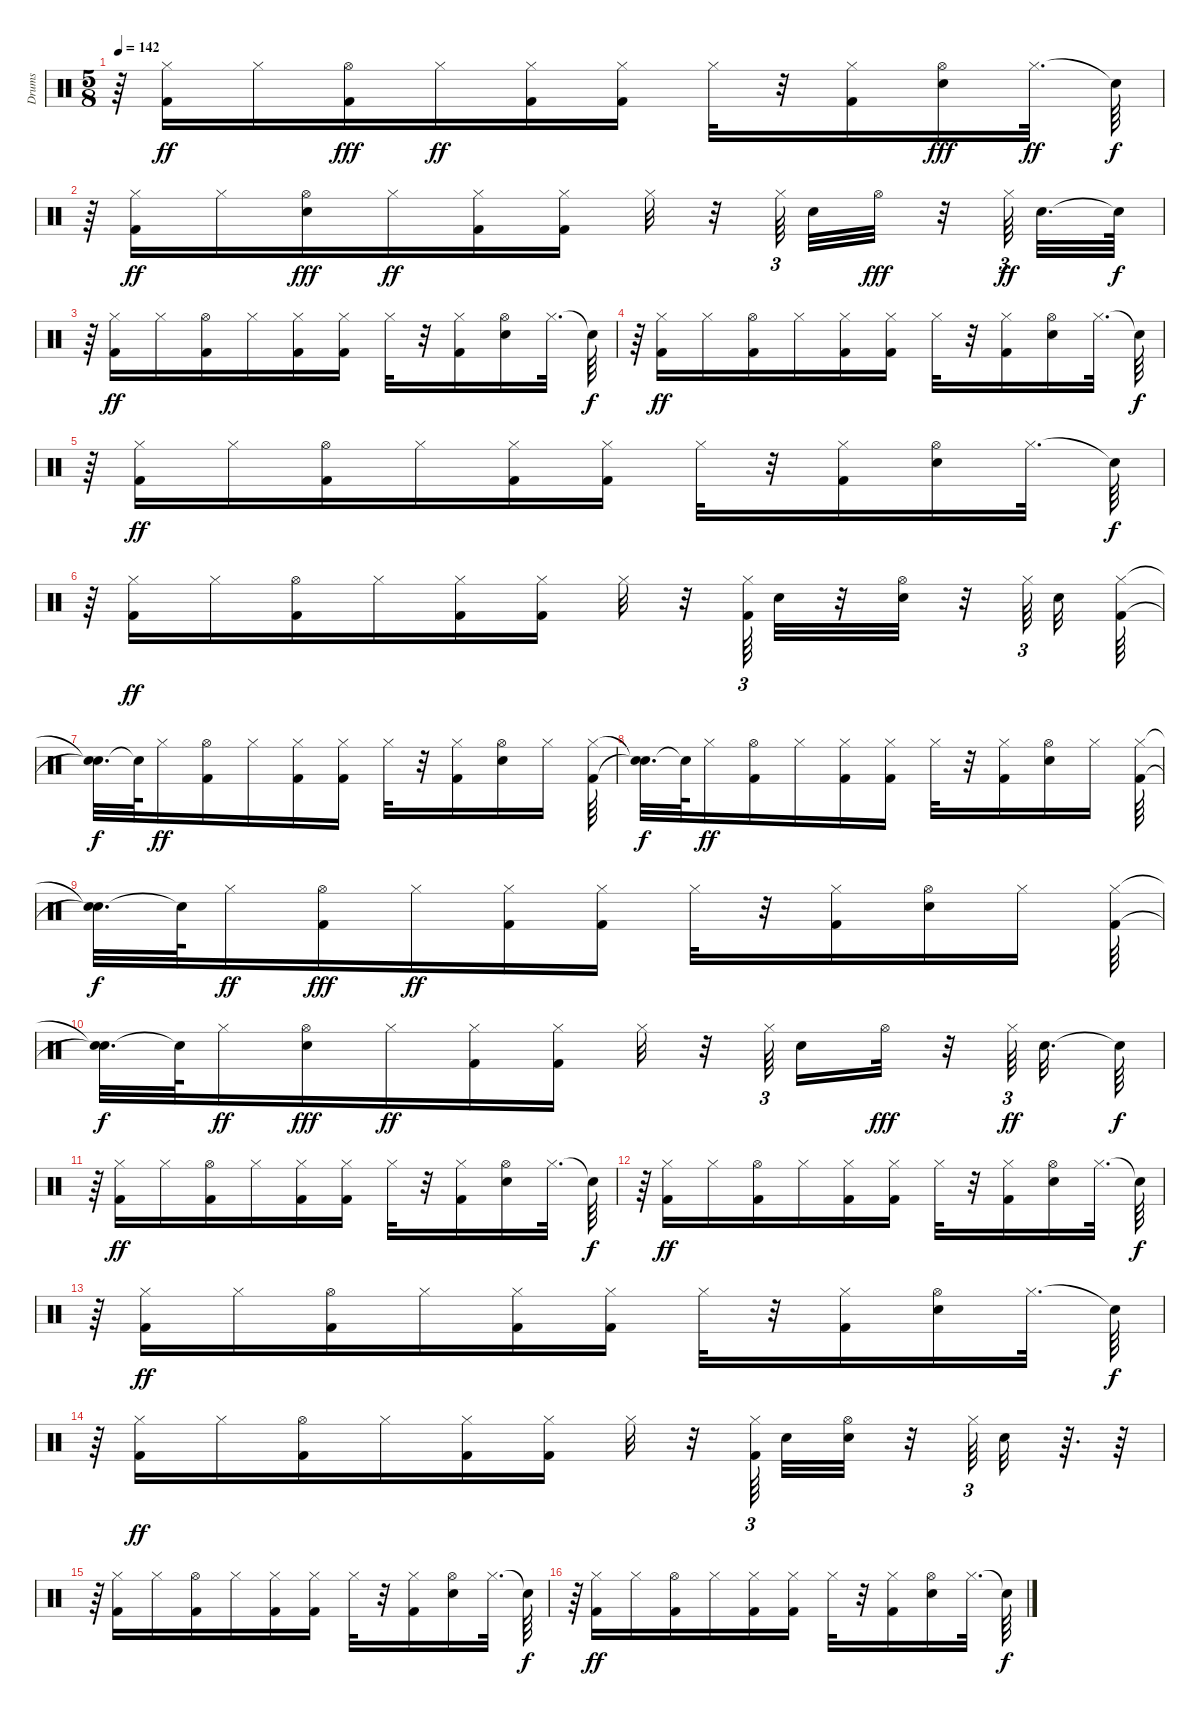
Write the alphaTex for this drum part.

\track ("Drums                               " "Drums     ") {instrument percussion}
\staff {score}
\articulation defaults
\ts (5 8)
\tempo 142
\clef neutral
\ks c
r.64{dy f} ("Kick (hit) 2" "Hi-Hat (closed)").16{dy ff} "Hi-Hat (closed)".16 ("Kick (hit) 2" "Hi-Hat (open)").16{dy fff} "Hi-Hat (closed)".16{dy ff} ("Hi-Hat (closed)" "Kick (hit) 2").16 ("Kick (hit) 2" "Hi-Hat (closed)").16 "Hi-Hat (closed)".32 r.32 ("Kick (hit) 2" "Hi-Hat (closed)").16 ("Snare (hit) 2" "Hi-Hat (open)").16{dy fff} "Hi-Hat (closed)".32{d dy ff} "Snare (hit)"{t}.64{dy f} |
r.64 ("Kick (hit) 2" "Hi-Hat (closed)").16{dy ff} "Hi-Hat (closed)".16 ("Snare (hit) 2" "Hi-Hat (open)").16{dy fff} "Hi-Hat (closed)".16{dy ff} ("Hi-Hat (closed)" "Kick (hit) 2").16 ("Kick (hit) 2" "Hi-Hat (closed)").16 "Hi-Hat (closed)".32 r.32 "Hi-Hat (closed)".64{tu (3 2)} "Snare (hit) 2".32 "Hi-Hat (open)".32{dy fff} r.32 "Hi-Hat (closed)".64{tu (3 2) dy ff} "Snare (hit) 2".32{d} "Snare (hit)"{t}.64{dy f} |
r.64 ("Kick (hit) 2" "Hi-Hat (closed)").16{dy ff} "Hi-Hat (closed)".16 ("Kick (hit) 2" "Hi-Hat (open)").16 "Hi-Hat (closed)".16 ("Hi-Hat (closed)" "Kick (hit) 2").16 ("Kick (hit) 2" "Hi-Hat (closed)").16 "Hi-Hat (closed)".32 r.32 ("Kick (hit) 2" "Hi-Hat (closed)").16 ("Snare (hit) 2" "Hi-Hat (open)").16 "Hi-Hat (closed)".32{d} "Snare (hit)"{t}.64{dy f} |
r.64 ("Hi-Hat (closed)" "Kick (hit) 2").16{dy ff} "Hi-Hat (closed)".16 ("Hi-Hat (open)" "Kick (hit) 2").16 "Hi-Hat (closed)".16 ("Hi-Hat (closed)" "Kick (hit) 2").16 ("Kick (hit) 2" "Hi-Hat (closed)").16 "Hi-Hat (closed)".32 r.32 ("Kick (hit) 2" "Hi-Hat (closed)").16 ("Hi-Hat (open)" "Snare (hit) 2").16 "Hi-Hat (closed)".32{d} "Snare (hit)"{t}.64{dy f} |
r.64 ("Hi-Hat (closed)" "Kick (hit) 2").16{dy ff} "Hi-Hat (closed)".16 ("Hi-Hat (open)" "Kick (hit) 2").16 "Hi-Hat (closed)".16 ("Kick (hit) 2" "Hi-Hat (closed)").16 ("Kick (hit) 2" "Hi-Hat (closed)").16 "Hi-Hat (closed)".32 r.32 ("Kick (hit) 2" "Hi-Hat (closed)").16 ("Hi-Hat (open)" "Snare (hit) 2").16 "Hi-Hat (closed)".32{d} "Snare (hit)"{t}.64{dy f} |
r.64 ("Kick (hit) 2" "Hi-Hat (closed)").16{dy ff} "Hi-Hat (closed)".16 ("Hi-Hat (open)" "Kick (hit) 2").16 "Hi-Hat (closed)".16 ("Kick (hit) 2" "Hi-Hat (closed)").16 ("Kick (hit) 2" "Hi-Hat (closed)").16 "Hi-Hat (closed)".32 r.32 ("Kick (hit) 2" "Hi-Hat (closed)").64{tu (3 2)} "Snare (hit) 2".32 r.32 ("Hi-Hat (open)" "Snare (hit) 2").32 r.32 "Hi-Hat (closed)".64{tu (3 2)} "Snare (hit) 2".32 ("Kick (hit) 2" "Hi-Hat (closed)").64 |
("Snare (hit)"{t} "Snare (hit)"{t}).32{d dy f} "Snare (hit)"{t}.64 "Hi-Hat (closed)".16{dy ff} ("Hi-Hat (open)" "Kick (hit) 2").16 "Hi-Hat (closed)".16 ("Hi-Hat (closed)" "Kick (hit) 2").16 ("Kick (hit) 2" "Hi-Hat (closed)").16 "Hi-Hat (closed)".32 r.32 ("Kick (hit) 2" "Hi-Hat (closed)").16 ("Snare (hit) 2" "Hi-Hat (open)").16 "Hi-Hat (closed)".16 ("Hi-Hat (closed)" "Kick (hit) 2").64 |
("Snare (hit)"{t} "Snare (hit)"{t}).32{d dy f} "Snare (hit)"{t}.64 "Hi-Hat (closed)".16{dy ff} ("Hi-Hat (open)" "Kick (hit) 2").16 "Hi-Hat (closed)".16 ("Kick (hit) 2" "Hi-Hat (closed)").16 ("Kick (hit) 2" "Hi-Hat (closed)").16 "Hi-Hat (closed)".32 r.32 ("Kick (hit) 2" "Hi-Hat (closed)").16 ("Hi-Hat (open)" "Snare (hit) 2").16 "Hi-Hat (closed)".16 ("Hi-Hat (closed)" "Kick (hit) 2").64 |
("Snare (hit)"{t} "Snare (hit)"{t}).32{d dy f} "Snare (hit)"{t}.64 "Hi-Hat (closed)".16{dy ff} ("Kick (hit) 2" "Hi-Hat (open)").16{dy fff} "Hi-Hat (closed)".16{dy ff} ("Hi-Hat (closed)" "Kick (hit) 2").16 ("Kick (hit) 2" "Hi-Hat (closed)").16 "Hi-Hat (closed)".32 r.32 ("Kick (hit) 2" "Hi-Hat (closed)").16 ("Hi-Hat (open)" "Snare (hit) 2").16 "Hi-Hat (closed)".16 ("Kick (hit) 2" "Hi-Hat (closed)").64 |
("Snare (hit)"{t} "Snare (hit)"{t}).32{d dy f} "Snare (hit)"{t}.64 "Hi-Hat (closed)".16{dy ff} ("Snare (hit) 2" "Hi-Hat (open)").16{dy fff} "Hi-Hat (closed)".16{dy ff} ("Hi-Hat (closed)" "Kick (hit) 2").16 ("Kick (hit) 2" "Hi-Hat (closed)").16 "Hi-Hat (closed)".32 r.32 "Hi-Hat (closed)".64{tu (3 2)} "Snare (hit) 2".16 "Hi-Hat (open)".32{dy fff} r.32 "Hi-Hat (closed)".64{tu (3 2) dy ff} "Snare (hit) 2".32{d} "Snare (hit)"{t}.64{dy f} |
r.64 ("Kick (hit) 2" "Hi-Hat (closed)").16{dy ff} "Hi-Hat (closed)".16 ("Kick (hit) 2" "Hi-Hat (open)").16 "Hi-Hat (closed)".16 ("Hi-Hat (closed)" "Kick (hit) 2").16 ("Kick (hit) 2" "Hi-Hat (closed)").16 "Hi-Hat (closed)".32 r.32 ("Kick (hit) 2" "Hi-Hat (closed)").16 ("Hi-Hat (open)" "Snare (hit) 2").16 "Hi-Hat (closed)".32{d} "Snare (hit)"{t}.64{dy f} |
r.64 ("Hi-Hat (closed)" "Kick (hit) 2").16{dy ff} "Hi-Hat (closed)".16 ("Hi-Hat (open)" "Kick (hit) 2").16 "Hi-Hat (closed)".16 ("Hi-Hat (closed)" "Kick (hit) 2").16 ("Kick (hit) 2" "Hi-Hat (closed)").16 "Hi-Hat (closed)".32 r.32 ("Kick (hit) 2" "Hi-Hat (closed)").16 ("Snare (hit) 2" "Hi-Hat (open)").16 "Hi-Hat (closed)".32{d} "Snare (hit)"{t}.64{dy f} |
r.64 ("Kick (hit) 2" "Hi-Hat (closed)").16{dy ff} "Hi-Hat (closed)".16 ("Hi-Hat (open)" "Kick (hit) 2").16 "Hi-Hat (closed)".16 ("Kick (hit) 2" "Hi-Hat (closed)").16 ("Kick (hit) 2" "Hi-Hat (closed)").16 "Hi-Hat (closed)".32 r.32 ("Kick (hit) 2" "Hi-Hat (closed)").16 ("Hi-Hat (open)" "Snare (hit) 2").16 "Hi-Hat (closed)".32{d} "Snare (hit)"{t}.64{dy f} |
r.64 ("Hi-Hat (closed)" "Kick (hit) 2").16{dy ff} "Hi-Hat (closed)".16 ("Hi-Hat (open)" "Kick (hit) 2").16 "Hi-Hat (closed)".16 ("Kick (hit) 2" "Hi-Hat (closed)").16 ("Kick (hit) 2" "Hi-Hat (closed)").16 "Hi-Hat (closed)".32 r.32 ("Kick (hit) 2" "Hi-Hat (closed)").64{tu (3 2)} "Snare (hit) 2".32 ("Hi-Hat (open)" "Snare (hit) 2").32 r.32 "Hi-Hat (closed)".64{tu (3 2)} "Snare (hit) 2".32 r.64{d} r.64 |
r.64 ("Hi-Hat (closed)" "Kick (hit) 2").16 "Hi-Hat (closed)".16 ("Kick (hit) 2" "Hi-Hat (open)").16 "Hi-Hat (closed)".16 ("Hi-Hat (closed)" "Kick (hit) 2").16 ("Kick (hit) 2" "Hi-Hat (closed)").16 "Hi-Hat (closed)".32 r.32 ("Kick (hit) 2" "Hi-Hat (closed)").16 ("Snare (hit) 2" "Hi-Hat (open)").16 "Hi-Hat (closed)".32{d} "Snare (hit)"{t}.64{dy f} |
r.64 ("Kick (hit) 2" "Hi-Hat (closed)").16{dy ff} "Hi-Hat (closed)".16 ("Hi-Hat (open)" "Kick (hit) 2").16 "Hi-Hat (closed)".16 ("Kick (hit) 2" "Hi-Hat (closed)").16 ("Kick (hit) 2" "Hi-Hat (closed)").16 "Hi-Hat (closed)".32 r.32 ("Kick (hit) 2" "Hi-Hat (closed)").16 ("Hi-Hat (open)" "Snare (hit) 2").16 "Hi-Hat (closed)".32{d} "Snare (hit)"{t}.64{dy f}
